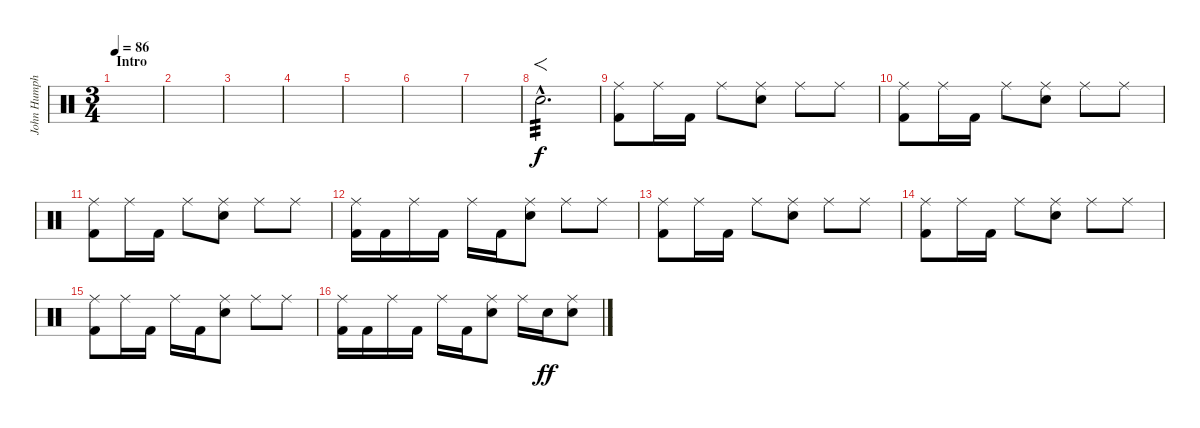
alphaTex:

\track ("John Humphrey" "John Humph") {instrument percussion}
\staff {score}
\articulation defaults
\ts (3 4)
\section ("" "Intro")
\tempo 86
\clef neutral
\ks c
|
|
|
|
|
|
|
"Snare (hit) 2"{hac}.2{f d tp 3} |
("Ride (middle)" "Kick (hit) 2").8 "Ride (middle)".16 "Kick (hit) 2".16 "Ride (middle)".8 ("Ride (middle)" "Snare (hit) 2").8 "Ride (middle)".8 "Ride (middle)".8 |
("Ride (middle)" "Kick (hit) 2").8 "Ride (middle)".16 "Kick (hit) 2".16 "Ride (middle)".8 ("Ride (middle)" "Snare (hit) 2").8 "Ride (middle)".8 "Ride (middle)".8 |
("Ride (middle)" "Kick (hit) 2").8 "Ride (middle)".16 "Kick (hit) 2".16 "Ride (middle)".8 ("Ride (middle)" "Snare (hit) 2").8 "Ride (middle)".8 "Ride (middle)".8 |
("Ride (middle)" "Kick (hit) 2").16 "Kick (hit) 2".16 "Ride (middle)".16 "Kick (hit) 2".16 "Ride (middle)".16 "Kick (hit) 2".16 ("Ride (middle)" "Snare (hit) 2").8 "Ride (middle)".8 "Ride (middle)".8 |
("Ride (middle)" "Kick (hit) 2").8 "Ride (middle)".16 "Kick (hit) 2".16 "Ride (middle)".8 ("Ride (middle)" "Snare (hit) 2").8 "Ride (middle)".8 "Ride (middle)".8 |
("Ride (middle)" "Kick (hit) 2").8 "Ride (middle)".16 "Kick (hit) 2".16 "Ride (middle)".8 ("Ride (middle)" "Snare (hit) 2").8 "Ride (middle)".8 "Ride (middle)".8 |
("Ride (middle)" "Kick (hit) 2").8 "Ride (middle)".16 "Kick (hit) 2".16 "Ride (middle)".16 "Kick (hit) 2".16 ("Ride (middle)" "Snare (hit) 2").8 "Ride (middle)".8 "Ride (middle)".8 |
("Ride (middle)" "Kick (hit) 2").16 "Kick (hit) 2".16 "Ride (middle)".16 "Kick (hit) 2".16 "Ride (middle)".16 "Kick (hit) 2".16 ("Ride (middle)" "Snare (hit) 2").8 "Ride (middle)".16 "Snare (hit) 2".16{dy ff} ("Ride (middle)" "Snare (hit) 2").8
